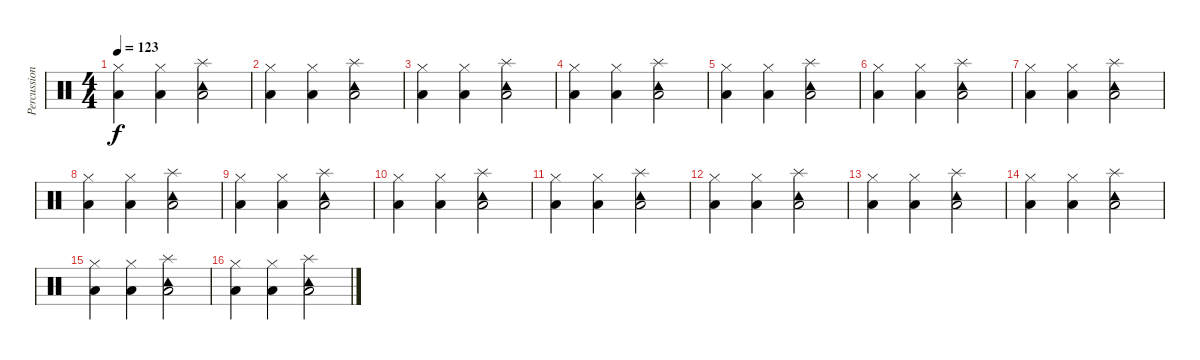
\track ("Percussion" "Percussion") {instrument percussion}
\staff {score}
\articulation defaults
\ts (4 4)
\tempo 123
\clef neutral
\ks c
("Low Floor Tom (hit)" "Hi-Hat (closed)").4{dy f} ("Low Floor Tom (hit)" "Hi-Hat (closed)").4 ("Splash (hit)" "Low Floor Tom (hit)" "Tambourine (hit)").2 |
("Low Floor Tom (hit)" "Hi-Hat (closed)").4 ("Low Floor Tom (hit)" "Hi-Hat (closed)").4 ("Splash (hit)" "Low Floor Tom (hit)" "Tambourine (hit)").2 |
("Low Floor Tom (hit)" "Hi-Hat (closed)").4 ("Low Floor Tom (hit)" "Hi-Hat (closed)").4 ("Splash (hit)" "Low Floor Tom (hit)" "Tambourine (hit)").2 |
("Low Floor Tom (hit)" "Hi-Hat (closed)").4 ("Low Floor Tom (hit)" "Hi-Hat (closed)").4 ("Splash (hit)" "Low Floor Tom (hit)" "Tambourine (hit)").2 |
("Low Floor Tom (hit)" "Hi-Hat (closed)").4 ("Low Floor Tom (hit)" "Hi-Hat (closed)").4 ("Splash (hit)" "Low Floor Tom (hit)" "Tambourine (hit)").2 |
("Low Floor Tom (hit)" "Hi-Hat (closed)").4 ("Low Floor Tom (hit)" "Hi-Hat (closed)").4 ("Splash (hit)" "Low Floor Tom (hit)" "Tambourine (hit)").2 |
("Low Floor Tom (hit)" "Hi-Hat (closed)").4 ("Low Floor Tom (hit)" "Hi-Hat (closed)").4 ("Splash (hit)" "Low Floor Tom (hit)" "Tambourine (hit)").2 |
("Low Floor Tom (hit)" "Hi-Hat (closed)").4 ("Low Floor Tom (hit)" "Hi-Hat (closed)").4 ("Splash (hit)" "Low Floor Tom (hit)" "Tambourine (hit)").2 |
("Low Floor Tom (hit)" "Hi-Hat (closed)").4 ("Low Floor Tom (hit)" "Hi-Hat (closed)").4 ("Splash (hit)" "Low Floor Tom (hit)" "Tambourine (hit)").2 |
("Low Floor Tom (hit)" "Hi-Hat (closed)").4 ("Low Floor Tom (hit)" "Hi-Hat (closed)").4 ("Splash (hit)" "Low Floor Tom (hit)" "Tambourine (hit)").2 |
("Low Floor Tom (hit)" "Hi-Hat (closed)").4 ("Low Floor Tom (hit)" "Hi-Hat (closed)").4 ("Splash (hit)" "Low Floor Tom (hit)" "Tambourine (hit)").2 |
("Low Floor Tom (hit)" "Hi-Hat (closed)").4 ("Low Floor Tom (hit)" "Hi-Hat (closed)").4 ("Splash (hit)" "Low Floor Tom (hit)" "Tambourine (hit)").2 |
("Low Floor Tom (hit)" "Hi-Hat (closed)").4 ("Low Floor Tom (hit)" "Hi-Hat (closed)").4 ("Splash (hit)" "Low Floor Tom (hit)" "Tambourine (hit)").2 |
("Low Floor Tom (hit)" "Hi-Hat (closed)").4 ("Low Floor Tom (hit)" "Hi-Hat (closed)").4 ("Splash (hit)" "Low Floor Tom (hit)" "Tambourine (hit)").2 |
("Low Floor Tom (hit)" "Hi-Hat (closed)").4 ("Low Floor Tom (hit)" "Hi-Hat (closed)").4 ("Splash (hit)" "Low Floor Tom (hit)" "Tambourine (hit)").2 |
("Low Floor Tom (hit)" "Hi-Hat (closed)").4 ("Low Floor Tom (hit)" "Hi-Hat (closed)").4 ("Splash (hit)" "Low Floor Tom (hit)" "Tambourine (hit)").2
